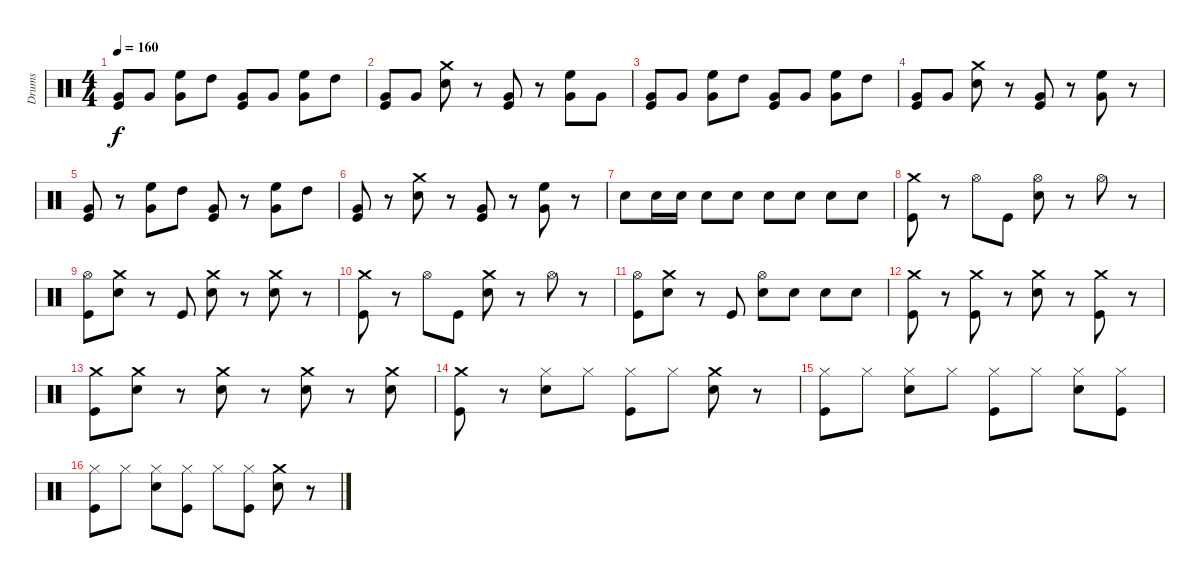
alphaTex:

\track ("Drums" "Drums") {instrument percussion}
\staff {score}
\articulation defaults
\ts (4 4)
\tempo 160
\clef neutral
\ks c
("Kick (hit)" "Very Low Tom (hit)").8{dy f} "Very Low Tom (hit)".8 ("High Floor Tom (hit)" "Very Low Tom (hit)").8 "High Tom (hit)".8 ("Very Low Tom (hit)" "Kick (hit)").8 "Very Low Tom (hit)".8 ("High Floor Tom (hit)" "Very Low Tom (hit)").8 "High Tom (hit)".8 |
("Kick (hit)" "Very Low Tom (hit)").8 "Very Low Tom (hit)".8 ("Crash medium (hit)" "Snare (hit) 2").8 r.8 ("Kick (hit)" "Very Low Tom (hit)").8 r.8 ("High Floor Tom (hit)" "Very Low Tom (hit)").8 "Very Low Tom (hit)".8 |
("Kick (hit)" "Very Low Tom (hit)").8 "Very Low Tom (hit)".8 ("High Floor Tom (hit)" "Very Low Tom (hit)").8 "High Tom (hit)".8 ("Very Low Tom (hit)" "Kick (hit)").8 "Very Low Tom (hit)".8 ("High Floor Tom (hit)" "Very Low Tom (hit)").8 "High Tom (hit)".8 |
("Kick (hit)" "Very Low Tom (hit)").8 "Very Low Tom (hit)".8 ("Crash medium (hit)" "Snare (hit) 2").8 r.8 ("Kick (hit)" "Very Low Tom (hit)").8 r.8 ("Very Low Tom (hit)" "High Floor Tom (hit)").8 r.8 |
("Kick (hit)" "Very Low Tom (hit)").8 r.8 ("High Floor Tom (hit)" "Very Low Tom (hit)").8 "High Tom (hit)".8 ("Very Low Tom (hit)" "Kick (hit)").8 r.8 ("High Floor Tom (hit)" "Very Low Tom (hit)").8 "High Tom (hit)".8 |
("Very Low Tom (hit)" "Kick (hit)").8 r.8 ("Crash medium (hit)" "Snare (hit) 2").8 r.8 ("Kick (hit)" "Very Low Tom (hit)").8 r.8 ("High Floor Tom (hit)" "Very Low Tom (hit)").8 r.8 |
"Snare (hit) 2".8 "Snare (hit) 2".16 "Snare (hit) 2".16 "Snare (hit) 2".8 "Snare (hit) 2".8 "Snare (hit) 2".8 "Snare (hit) 2".8 "Snare (hit) 2".8 "Snare (hit) 2".8 |
("Kick (hit)" "Crash medium (hit)").8 r.8 "Hi-Hat (open)".8 "Kick (hit)".8 ("Hi-Hat (open)" "Snare (hit) 2").8 r.8 "Hi-Hat (open)".8 r.8 |
("Hi-Hat (open)" "Kick (hit)").8 ("Crash medium (hit)" "Snare (hit) 2").8 r.8 "Kick (hit)".8 ("Crash medium (hit)" "Snare (hit) 2").8 r.8 ("Crash medium (hit)" "Snare (hit) 2").8 r.8 |
("Kick (hit)" "Crash medium (hit)").8 r.8 "Hi-Hat (open)".8 "Kick (hit)".8 ("Crash medium (hit)" "Snare (hit) 2").8 r.8 "Hi-Hat (open)".8 r.8 |
("Hi-Hat (open)" "Kick (hit)").8 ("Crash medium (hit)" "Snare (hit) 2").8 r.8 "Kick (hit)".8 ("Hi-Hat (open)" "Snare (hit) 2").8 "Snare (hit) 2".8 "Snare (hit) 2".8 "Snare (hit) 2".8 |
("Crash medium (hit)" "Kick (hit)").8 r.8 ("Kick (hit)" "Crash medium (hit)").8 r.8 ("Crash medium (hit)" "Snare (hit) 2").8 r.8 ("Kick (hit)" "Crash medium (hit)").8 r.8 |
("Crash medium (hit)" "Kick (hit)").8 ("Snare (hit) 2" "Crash medium (hit)").8 r.8 ("Crash medium (hit)" "Snare (hit) 2").8 r.8 ("Crash medium (hit)" "Snare (hit) 2").8 r.8 ("Snare (hit) 2" "Crash medium (hit)").8 |
("Kick (hit)" "Crash medium (hit)").8 r.8 ("Hi-Hat (closed)" "Snare (hit) 2").8 "Hi-Hat (closed)".8 ("Kick (hit)" "Hi-Hat (closed)").8 "Hi-Hat (closed)".8 ("Crash medium (hit)" "Snare (hit) 2").8 r.8 |
("Kick (hit)" "Hi-Hat (closed)").8 "Hi-Hat (closed)".8 ("Snare (hit) 2" "Hi-Hat (closed)").8 "Hi-Hat (closed)".8 ("Kick (hit)" "Hi-Hat (closed)").8 "Hi-Hat (closed)".8 ("Hi-Hat (closed)" "Snare (hit) 2").8 ("Hi-Hat (closed)" "Kick (hit)").8 |
("Hi-Hat (closed)" "Kick (hit)").8 "Hi-Hat (closed)".8 ("Snare (hit) 2" "Hi-Hat (closed)").8 ("Kick (hit)" "Hi-Hat (closed)").8 "Hi-Hat (closed)".8 ("Kick (hit)" "Hi-Hat (closed)").8 ("Crash medium (hit)" "Snare (hit) 2").8 r.8
